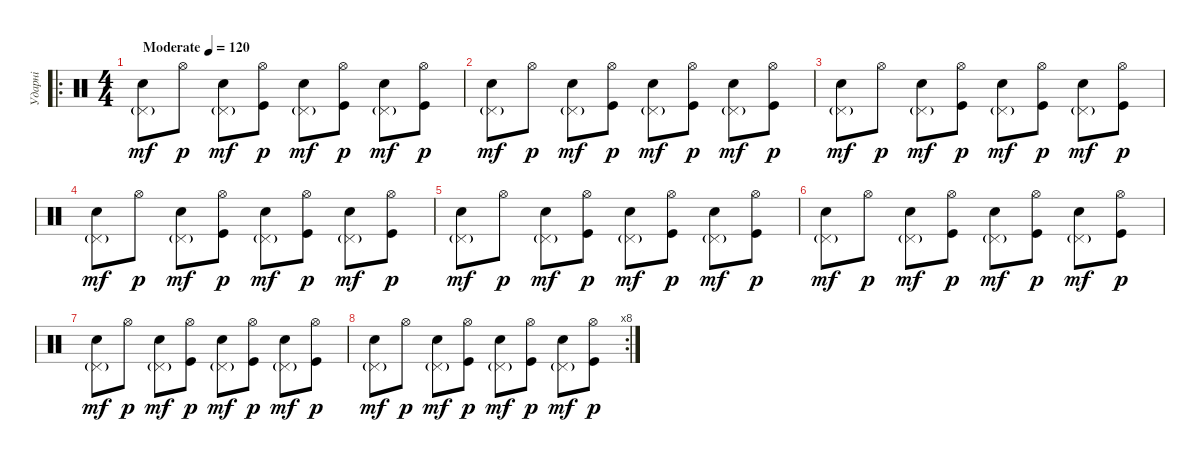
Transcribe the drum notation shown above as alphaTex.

\track ("Ударні" "Ударні") {instrument percussion}
\staff {score}
\articulation defaults
\ro
\ts (4 4)
\tempo (120 "Moderate")
\clef neutral
\ks c
("Pedal Hi-Hat (hit)"{g} "Snare (hit) 2").8{dy mf} "Hi-Hat (open)".8{dy p} ("Pedal Hi-Hat (hit)"{g} "Snare (hit) 2").8{dy mf} ("Hi-Hat (open)" "Kick (hit)").8{dy p} ("Pedal Hi-Hat (hit)"{g} "Snare (hit) 2").8{dy mf} ("Hi-Hat (open)" "Kick (hit)").8{dy p} ("Pedal Hi-Hat (hit)"{g} "Snare (hit) 2").8{dy mf} ("Hi-Hat (open)" "Kick (hit)").8{dy p} |
("Pedal Hi-Hat (hit)"{g} "Snare (hit) 2").8{dy mf} "Hi-Hat (open)".8{dy p} ("Pedal Hi-Hat (hit)"{g} "Snare (hit) 2").8{dy mf} ("Hi-Hat (open)" "Kick (hit)").8{dy p} ("Pedal Hi-Hat (hit)"{g} "Snare (hit) 2").8{dy mf} ("Hi-Hat (open)" "Kick (hit)").8{dy p} ("Pedal Hi-Hat (hit)"{g} "Snare (hit) 2").8{dy mf} ("Hi-Hat (open)" "Kick (hit)").8{dy p} |
("Pedal Hi-Hat (hit)"{g} "Snare (hit) 2").8{dy mf} "Hi-Hat (open)".8{dy p} ("Pedal Hi-Hat (hit)"{g} "Snare (hit) 2").8{dy mf} ("Hi-Hat (open)" "Kick (hit)").8{dy p} ("Pedal Hi-Hat (hit)"{g} "Snare (hit) 2").8{dy mf} ("Hi-Hat (open)" "Kick (hit)").8{dy p} ("Pedal Hi-Hat (hit)"{g} "Snare (hit) 2").8{dy mf} ("Hi-Hat (open)" "Kick (hit)").8{dy p} |
("Pedal Hi-Hat (hit)"{g} "Snare (hit) 2").8{dy mf} "Hi-Hat (open)".8{dy p} ("Pedal Hi-Hat (hit)"{g} "Snare (hit) 2").8{dy mf} ("Hi-Hat (open)" "Kick (hit)").8{dy p} ("Pedal Hi-Hat (hit)"{g} "Snare (hit) 2").8{dy mf} ("Hi-Hat (open)" "Kick (hit)").8{dy p} ("Pedal Hi-Hat (hit)"{g} "Snare (hit) 2").8{dy mf} ("Hi-Hat (open)" "Kick (hit)").8{dy p} |
("Pedal Hi-Hat (hit)"{g} "Snare (hit) 2").8{dy mf} "Hi-Hat (open)".8{dy p} ("Pedal Hi-Hat (hit)"{g} "Snare (hit) 2").8{dy mf} ("Hi-Hat (open)" "Kick (hit)").8{dy p} ("Pedal Hi-Hat (hit)"{g} "Snare (hit) 2").8{dy mf} ("Hi-Hat (open)" "Kick (hit)").8{dy p} ("Pedal Hi-Hat (hit)"{g} "Snare (hit) 2").8{dy mf} ("Hi-Hat (open)" "Kick (hit)").8{dy p} |
("Pedal Hi-Hat (hit)"{g} "Snare (hit) 2").8{dy mf} "Hi-Hat (open)".8{dy p} ("Pedal Hi-Hat (hit)"{g} "Snare (hit) 2").8{dy mf} ("Hi-Hat (open)" "Kick (hit)").8{dy p} ("Pedal Hi-Hat (hit)"{g} "Snare (hit) 2").8{dy mf} ("Hi-Hat (open)" "Kick (hit)").8{dy p} ("Pedal Hi-Hat (hit)"{g} "Snare (hit) 2").8{dy mf} ("Hi-Hat (open)" "Kick (hit)").8{dy p} |
("Pedal Hi-Hat (hit)"{g} "Snare (hit) 2").8{dy mf} "Hi-Hat (open)".8{dy p} ("Pedal Hi-Hat (hit)"{g} "Snare (hit) 2").8{dy mf} ("Hi-Hat (open)" "Kick (hit)").8{dy p} ("Pedal Hi-Hat (hit)"{g} "Snare (hit) 2").8{dy mf} ("Hi-Hat (open)" "Kick (hit)").8{dy p} ("Pedal Hi-Hat (hit)"{g} "Snare (hit) 2").8{dy mf} ("Hi-Hat (open)" "Kick (hit)").8{dy p} |
\rc 8
("Pedal Hi-Hat (hit)"{g} "Snare (hit) 2").8{dy mf} "Hi-Hat (open)".8{dy p} ("Pedal Hi-Hat (hit)"{g} "Snare (hit) 2").8{dy mf} ("Hi-Hat (open)" "Kick (hit)").8{dy p} ("Pedal Hi-Hat (hit)"{g} "Snare (hit) 2").8{dy mf} ("Hi-Hat (open)" "Kick (hit)").8{dy p} ("Pedal Hi-Hat (hit)"{g} "Snare (hit) 2").8{dy mf} ("Hi-Hat (open)" "Kick (hit)").8{dy p}
